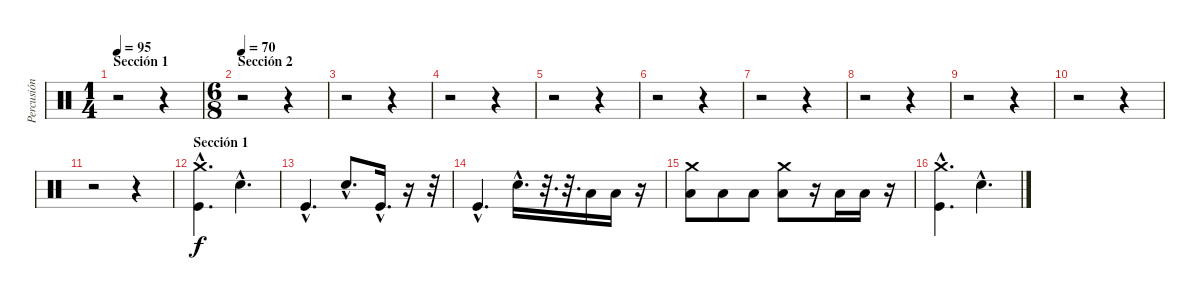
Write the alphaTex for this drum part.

\track ("Percusión" "Percusión") {instrument percussion}
\staff {score}
\articulation defaults
\ts (1 4)
\section ("" "Sección 1")
\tempo 95
\tempo 70
\tempo 95
\clef neutral
\ks c
r.2{dy f} r.4 |
\ts (6 8)
\section ("" "Sección 2")
\tempo 70
r.2 r.4 |
r.2 r.4 |
r.2 r.4 |
r.2 r.4 |
r.2 r.4 |
r.2 r.4 |
r.2 r.4 |
r.2 r.4 |
r.2 r.4 |
r.2 r.4 |
\section ("" "Sección 1")
("Crash medium (hit)"{hac} "Kick (hit)"{hac}).4{d} "Electric Snare (hit)"{hac}.4{d} |
"Kick (hit)"{hac}.4{d} "Electric Snare (hit)"{hac}.8{d} "Kick (hit)"{hac}.16{d} r.16 r.32 |
"Kick (hit)"{hac}.4{d} "Electric Snare (hit)"{hac}.16{d} r.32{d} r.32{d} "Low Tom (hit)".16 "Low Tom (hit)".16 r.16 |
("Crash medium (hit)" "Low Tom (hit)").8 "Low Tom (hit)".8 "Low Tom (hit)".8 ("Crash medium (hit)" "Low Tom (hit)").8 r.16 "Low Tom (hit)".16 "Low Tom (hit)".16 r.16 |
("Crash medium (hit)"{hac} "Kick (hit)"{hac}).4{d} "Electric Snare (hit)"{hac}.4{d}
